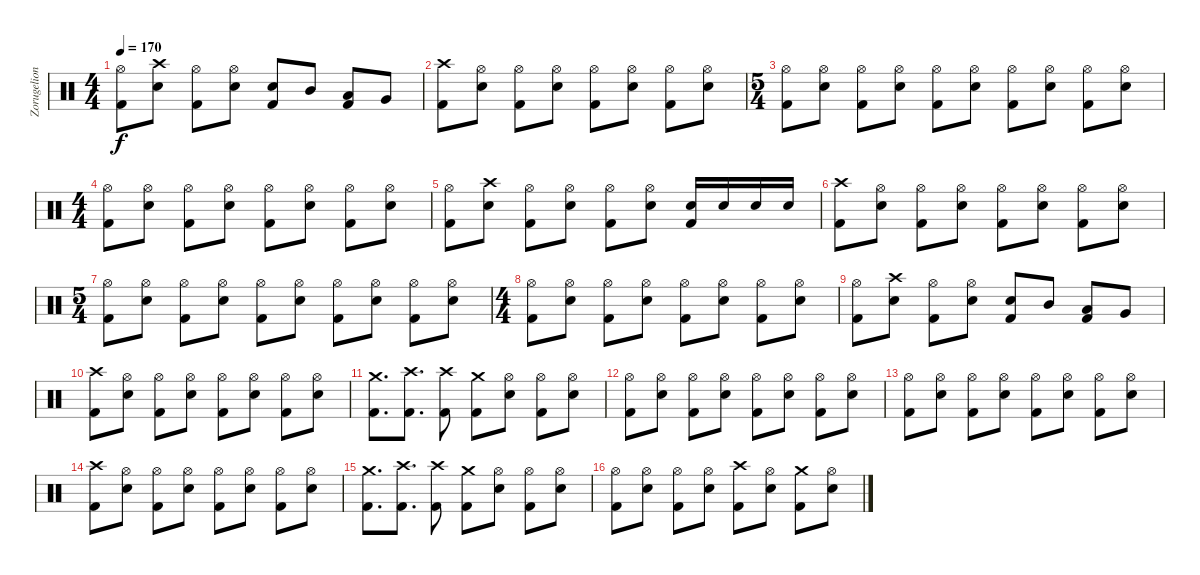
\track ("Zorugelion" "Zorugelion") {instrument percussion}
\staff {score}
\articulation defaults
\ts (4 4)
\tempo 170
\clef neutral
\ks c
("Hi-Hat (open)" "Kick (hit) 2").8{dy f} ("Crash high (hit)" "Electric Snare (hit)").8 ("Hi-Hat (open)" "Kick (hit) 2").8 ("Hi-Hat (open)" "Electric Snare (hit)").8 ("Electric Snare (hit)" "Kick (hit) 2").8 "Mid Tom (hit)".8 ("Low Tom (hit)" "Kick (hit) 2").8 "Very Low Tom (hit)".8 |
("Crash high (hit)" "Kick (hit) 2").8 ("Hi-Hat (open)" "Electric Snare (hit)").8 ("Hi-Hat (open)" "Kick (hit) 2").8 ("Hi-Hat (open)" "Electric Snare (hit)").8 ("Hi-Hat (open)" "Kick (hit) 2").8 ("Hi-Hat (open)" "Electric Snare (hit)").8 ("Hi-Hat (open)" "Kick (hit) 2").8 ("Hi-Hat (open)" "Electric Snare (hit)").8 |
\ts (5 4)
("Hi-Hat (open)" "Kick (hit) 2").8 ("Hi-Hat (open)" "Electric Snare (hit)").8 ("Hi-Hat (open)" "Kick (hit) 2").8 ("Hi-Hat (open)" "Electric Snare (hit)").8 ("Hi-Hat (open)" "Kick (hit) 2").8 ("Hi-Hat (open)" "Electric Snare (hit)").8 ("Hi-Hat (open)" "Kick (hit) 2").8 ("Hi-Hat (open)" "Electric Snare (hit)").8 ("Hi-Hat (open)" "Kick (hit) 2").8 ("Hi-Hat (open)" "Electric Snare (hit)").8 |
\ts (4 4)
("Hi-Hat (open)" "Kick (hit) 2").8 ("Hi-Hat (open)" "Electric Snare (hit)").8 ("Hi-Hat (open)" "Kick (hit) 2").8 ("Hi-Hat (open)" "Electric Snare (hit)").8 ("Hi-Hat (open)" "Kick (hit) 2").8 ("Hi-Hat (open)" "Electric Snare (hit)").8 ("Hi-Hat (open)" "Kick (hit) 2").8 ("Hi-Hat (open)" "Electric Snare (hit)").8 |
("Hi-Hat (open)" "Kick (hit) 2").8 ("Crash high (hit)" "Electric Snare (hit)").8 ("Hi-Hat (open)" "Kick (hit) 2").8 ("Hi-Hat (open)" "Electric Snare (hit)").8 ("Hi-Hat (open)" "Kick (hit) 2").8 ("Hi-Hat (open)" "Electric Snare (hit)").8 ("Electric Snare (hit)" "Kick (hit) 2").16 "Electric Snare (hit)".16 "Electric Snare (hit)".16 "Electric Snare (hit)".16 |
("Crash high (hit)" "Kick (hit) 2").8 ("Hi-Hat (open)" "Electric Snare (hit)").8 ("Hi-Hat (open)" "Kick (hit) 2").8 ("Hi-Hat (open)" "Electric Snare (hit)").8 ("Hi-Hat (open)" "Kick (hit) 2").8 ("Hi-Hat (open)" "Electric Snare (hit)").8 ("Hi-Hat (open)" "Kick (hit) 2").8 ("Hi-Hat (open)" "Electric Snare (hit)").8 |
\ts (5 4)
("Hi-Hat (open)" "Kick (hit) 2").8 ("Hi-Hat (open)" "Electric Snare (hit)").8 ("Hi-Hat (open)" "Kick (hit) 2").8 ("Hi-Hat (open)" "Electric Snare (hit)").8 ("Hi-Hat (open)" "Kick (hit) 2").8 ("Hi-Hat (open)" "Electric Snare (hit)").8 ("Hi-Hat (open)" "Kick (hit) 2").8 ("Hi-Hat (open)" "Electric Snare (hit)").8 ("Hi-Hat (open)" "Kick (hit) 2").8 ("Hi-Hat (open)" "Electric Snare (hit)").8 |
\ts (4 4)
("Hi-Hat (open)" "Kick (hit) 2").8 ("Hi-Hat (open)" "Electric Snare (hit)").8 ("Hi-Hat (open)" "Kick (hit) 2").8 ("Hi-Hat (open)" "Electric Snare (hit)").8 ("Hi-Hat (open)" "Kick (hit) 2").8 ("Hi-Hat (open)" "Electric Snare (hit)").8 ("Hi-Hat (open)" "Kick (hit) 2").8 ("Hi-Hat (open)" "Electric Snare (hit)").8 |
("Hi-Hat (open)" "Kick (hit) 2").8 ("Crash high (hit)" "Electric Snare (hit)").8 ("Hi-Hat (open)" "Kick (hit) 2").8 ("Hi-Hat (open)" "Electric Snare (hit)").8 ("Electric Snare (hit)" "Kick (hit) 2").8 "Mid Tom (hit)".8 ("Low Tom (hit)" "Kick (hit) 2").8 "Very Low Tom (hit)".8 |
("Crash high (hit)" "Kick (hit) 2").8 ("Hi-Hat (open)" "Electric Snare (hit)").8 ("Hi-Hat (open)" "Kick (hit) 2").8 ("Hi-Hat (open)" "Electric Snare (hit)").8 ("Hi-Hat (open)" "Kick (hit) 2").8 ("Hi-Hat (open)" "Electric Snare (hit)").8 ("Hi-Hat (open)" "Kick (hit) 2").8 ("Hi-Hat (open)" "Electric Snare (hit)").8 |
("Crash medium (hit)" "Kick (hit) 2").8{d} ("Crash high (hit)" "Kick (hit) 2").8{d} ("Crash high (hit)" "Kick (hit) 2").8 ("Crash medium (hit)" "Kick (hit) 2").8 ("Hi-Hat (open)" "Electric Snare (hit)").8 ("Hi-Hat (open)" "Kick (hit) 2").8 ("Hi-Hat (open)" "Electric Snare (hit)").8 |
("Hi-Hat (open)" "Kick (hit) 2").8 ("Hi-Hat (open)" "Electric Snare (hit)").8 ("Hi-Hat (open)" "Kick (hit) 2").8 ("Hi-Hat (open)" "Electric Snare (hit)").8 ("Hi-Hat (open)" "Kick (hit) 2").8 ("Hi-Hat (open)" "Electric Snare (hit)").8 ("Hi-Hat (open)" "Kick (hit) 2").8 ("Hi-Hat (open)" "Electric Snare (hit)").8 |
("Hi-Hat (open)" "Kick (hit) 2").8 ("Hi-Hat (open)" "Electric Snare (hit)").8 ("Hi-Hat (open)" "Kick (hit) 2").8 ("Hi-Hat (open)" "Electric Snare (hit)").8 ("Hi-Hat (open)" "Kick (hit) 2").8 ("Hi-Hat (open)" "Electric Snare (hit)").8 ("Hi-Hat (open)" "Kick (hit) 2").8 ("Hi-Hat (open)" "Electric Snare (hit)").8 |
("Crash high (hit)" "Kick (hit) 2").8 ("Hi-Hat (open)" "Electric Snare (hit)").8 ("Hi-Hat (open)" "Kick (hit) 2").8 ("Hi-Hat (open)" "Electric Snare (hit)").8 ("Hi-Hat (open)" "Kick (hit) 2").8 ("Hi-Hat (open)" "Electric Snare (hit)").8 ("Hi-Hat (open)" "Kick (hit) 2").8 ("Hi-Hat (open)" "Electric Snare (hit)").8 |
("Crash medium (hit)" "Kick (hit) 2").8{d} ("Crash high (hit)" "Kick (hit) 2").8{d} ("Crash high (hit)" "Kick (hit) 2").8 ("Crash medium (hit)" "Kick (hit) 2").8 ("Hi-Hat (open)" "Electric Snare (hit)").8 ("Hi-Hat (open)" "Kick (hit) 2").8 ("Hi-Hat (open)" "Electric Snare (hit)").8 |
("Hi-Hat (open)" "Kick (hit) 2").8 ("Hi-Hat (open)" "Electric Snare (hit)").8 ("Hi-Hat (open)" "Kick (hit) 2").8 ("Hi-Hat (open)" "Electric Snare (hit)").8 ("Crash high (hit)" "Kick (hit) 2").8 ("Hi-Hat (open)" "Electric Snare (hit)").8 ("Crash medium (hit)" "Kick (hit) 2").8 ("Hi-Hat (open)" "Electric Snare (hit)").8
